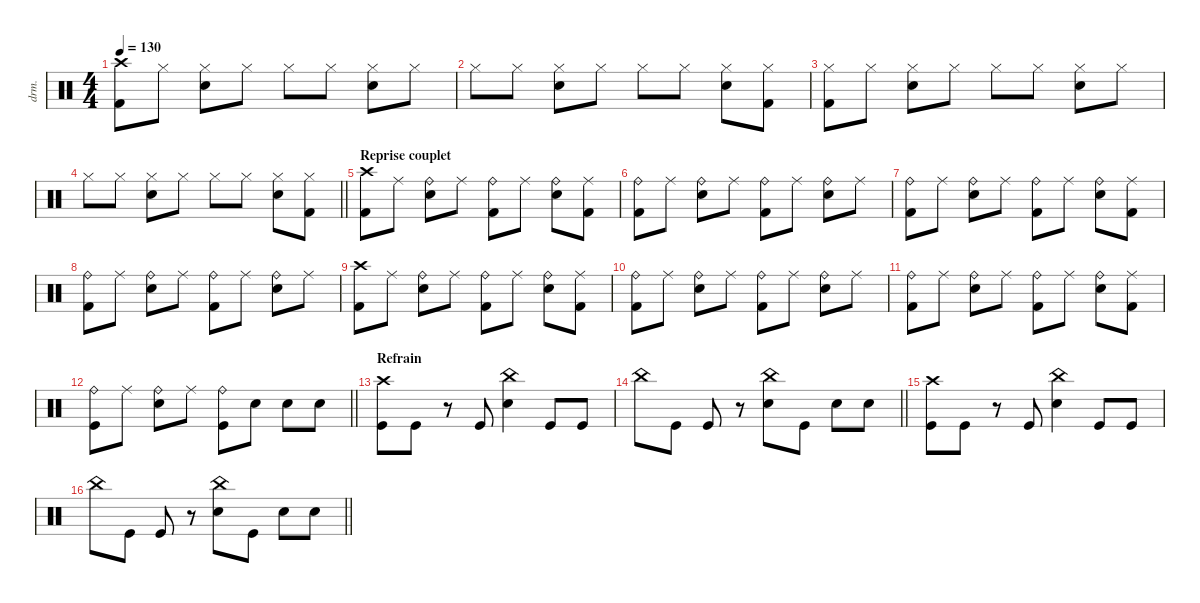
\defaultSystemsLayout 4
\hideDynamics
\bracketExtendMode nobrackets
\otherSystemsTrackNameOrientation horizontal
\track ("Manouche" "drm.") {instrument percussion}
\staff {score}
\articulation defaults
\ts (4 4)
\tempo 130
\clef neutral
\ks c
("Crash high (hit)" "Kick (hit) 2").8{dy f} "Hi-Hat (closed)".8{dy mp} ("Hi-Hat (closed)" "Snare (hit) 2").8{dy f} "Hi-Hat (closed)".8{dy mp} "Hi-Hat (closed)".8{dy f} "Hi-Hat (closed)".8{dy mp} ("Hi-Hat (closed)" "Snare (hit) 2").8{dy f} "Hi-Hat (closed)".8{dy mp} |
"Hi-Hat (closed)".8{dy f} "Hi-Hat (closed)".8{dy mp} ("Hi-Hat (closed)" "Snare (hit) 2").8{dy f} "Hi-Hat (closed)".8{dy mp} "Hi-Hat (closed)".8{dy f} "Hi-Hat (closed)".8{dy mp} ("Hi-Hat (closed)" "Snare (hit) 2").8{dy f} ("Hi-Hat (closed)" "Kick (hit) 2").8{dy mp} |
("Hi-Hat (closed)" "Kick (hit) 2").8 "Hi-Hat (closed)".8 ("Hi-Hat (closed)" "Snare (hit) 2").8{dy f} "Hi-Hat (closed)".8{dy mp} "Hi-Hat (closed)".8{dy f} "Hi-Hat (closed)".8{dy mp} ("Hi-Hat (closed)" "Snare (hit) 2").8{dy f} "Hi-Hat (closed)".8{dy mp} |
\barLineRight lightlight "Hi-Hat (closed)".8{dy f} "Hi-Hat (closed)".8{dy mp}
("Hi-Hat (closed)" "Snare (hit) 2").8{dy f} "Hi-Hat (closed)".8{dy mp} "Hi-Hat (closed)".8{dy f} "Hi-Hat (closed)".8{dy mp} ("Hi-Hat (closed)" "Snare (hit) 2").8{dy f} ("Hi-Hat (closed)" "Kick (hit) 2").8{dy mp} |
\section ("" "Reprise couplet")
("Crash high (hit)" "Kick (hit) 2").8{dy f} "Ride (middle)".8{dy mf} ("Ride (bell)" "Snare (hit) 2").8{dy f} "Ride (middle)".8{dy mf} ("Ride (bell)" "Kick (hit) 2").8{dy f} "Ride (middle)".8{dy mf} ("Ride (bell)" "Snare (hit) 2").8{dy f} ("Ride (middle)" "Kick (hit) 2").8{dy mf} |
("Ride (bell)" "Kick (hit) 2").8{dy f} "Ride (middle)".8{dy mf} ("Ride (bell)" "Snare (hit) 2").8{dy f} "Ride (middle)".8{dy mf} ("Ride (bell)" "Kick (hit) 2").8{dy f} "Ride (middle)".8{dy mf} ("Ride (bell)" "Snare (hit) 2").8{dy f} "Ride (middle)".8{dy mf} |
("Ride (bell)" "Kick (hit) 2").8{dy f} "Ride (middle)".8{dy mf} ("Ride (bell)" "Snare (hit) 2").8{dy f} "Ride (middle)".8{dy mf} ("Ride (bell)" "Kick (hit) 2").8{dy f} "Ride (middle)".8{dy mf} ("Ride (bell)" "Snare (hit) 2").8{dy f} ("Ride (middle)" "Kick (hit) 2").8{dy mf} |
("Ride (bell)" "Kick (hit) 2").8{dy f} "Ride (middle)".8{dy mf} ("Ride (bell)" "Snare (hit) 2").8{dy f} "Ride (middle)".8{dy mf} ("Ride (bell)" "Kick (hit) 2").8{dy f} "Ride (middle)".8{dy mf} ("Ride (bell)" "Snare (hit) 2").8{dy f} "Ride (middle)".8{dy mf} |
("Crash high (hit)" "Kick (hit) 2").8{dy f} "Ride (middle)".8{dy mf} ("Ride (bell)" "Snare (hit) 2").8{dy f} "Ride (middle)".8{dy mf} ("Ride (bell)" "Kick (hit) 2").8{dy f} "Ride (middle)".8{dy mf} ("Ride (bell)" "Snare (hit) 2").8{dy f} ("Ride (middle)" "Kick (hit) 2").8{dy mf} |
("Ride (bell)" "Kick (hit) 2").8{dy f} "Ride (middle)".8{dy mf} ("Ride (bell)" "Snare (hit) 2").8{dy f} "Ride (middle)".8{dy mf} ("Ride (bell)" "Kick (hit) 2").8{dy f} "Ride (middle)".8{dy mf} ("Ride (bell)" "Snare (hit) 2").8{dy f} "Ride (middle)".8{dy mf} |
("Ride (bell)" "Kick (hit) 2").8{dy f} "Ride (middle)".8{dy mf} ("Ride (bell)" "Snare (hit) 2").8{dy f} "Ride (middle)".8{dy mf} ("Ride (bell)" "Kick (hit) 2").8{dy f} "Ride (middle)".8{dy mf} ("Ride (bell)" "Snare (hit) 2").8{dy f} ("Ride (middle)" "Kick (hit) 2").8{dy mf} |
\barLineRight lightlight
("Ride (bell)" "Kick (hit)").8{dy f} "Ride (middle)".8{dy mf} ("Ride (bell)" "Snare (hit) 2").8{dy f} "Ride (middle)".8{dy mf} ("Ride (bell)" "Kick (hit)").8{dy f} "Snare (hit) 2".8 "Snare (hit) 2".8 "Snare (hit) 2".8 |
\section ("" "Refrain")
("Crash high (hit)" "Kick (hit)").8 "Kick (hit)".8 r.8 "Kick (hit)".8 ("China (hit)" "Snare (hit) 2").4 "Kick (hit)".8 "Kick (hit)".8 |
\barLineRight lightlight "China (hit)".8 "Kick (hit)".8 "Kick (hit)".8
r.8 ("China (hit)" "Snare (hit) 2").8 "Kick (hit)".8 "Snare (hit) 2".8 "Snare (hit) 2".8 |
("Crash high (hit)" "Kick (hit)").8 "Kick (hit)".8 r.8 "Kick (hit)".8 ("China (hit)" "Snare (hit) 2").4 "Kick (hit)".8 "Kick (hit)".8 |
\barLineRight lightlight "China (hit)".8 "Kick (hit)".8 "Kick (hit)".8
r.8 ("China (hit)" "Snare (hit) 2").8 "Kick (hit)".8 "Snare (hit) 2".8 "Snare (hit) 2".8
